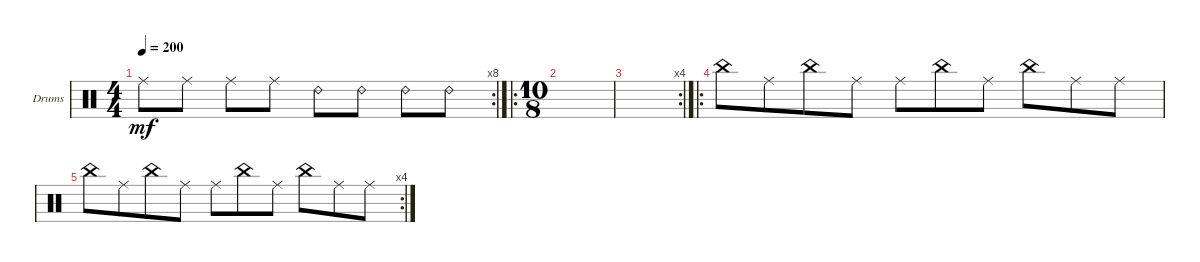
\defaultSystemsLayout 4
\bracketExtendMode groupsimilarinstruments
\firstSystemTrackNameOrientation horizontal
\otherSystemsTrackNameOrientation horizontal
\track ("Midget Caverly" "Drums") {instrument percussion}
\staff {score}
\articulation defaults
\rc 8
\ts (4 4)
\tempo 200
\clef neutral
\ks c "Ride (middle)".8{dy mf} "Ride (middle)".8 "Ride (middle)".8 "Ride (middle)".8 "Ride (bell) 2".8 "Ride (bell) 2".8 "Ride (bell) 2".8 "Ride (bell) 2".8
|
\ro
\ts (10 8)
|
\rc 4
|
\ro "China (hit)".8 "Ride (middle)".8 "China (hit)".8 "Ride (middle)".8 "Ride (middle)".8 "China (hit)".8 "Ride (middle)".8 "China (hit)".8 "Ride (middle)".8 "Ride (middle)".8
|
\rc 4 "China (hit)".8 "Ride (middle)".8 "China (hit)".8 "Ride (middle)".8 "Ride (middle)".8 "China (hit)".8 "Ride (middle)".8 "China (hit)".8 "Ride (middle)".8 "Ride (middle)".8
